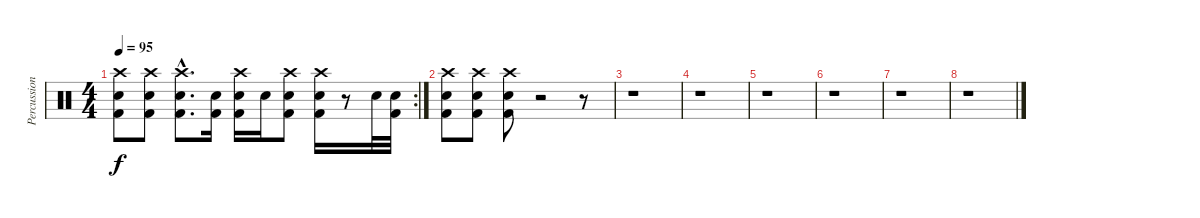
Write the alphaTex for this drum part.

\track ("Percussions" "Percussion") {instrument percussion}
\staff {score}
\articulation defaults
\rc 2
\ts (4 4)
\tempo 95
\clef neutral
\ks c
("Kick (hit) 2" "Snare (hit) 2" "Crash high (hit)").8{dy f} ("Kick (hit) 2" "Snare (hit) 2" "Crash high (hit)").8 ("Kick (hit) 2"{hac} "Snare (hit) 2"{hac} "Crash high (hit)"{hac}).8{d} ("Kick (hit) 2" "Snare (hit) 2").16 ("Kick (hit) 2" "Snare (hit) 2" "Crash high (hit)").16 "Snare (hit) 2".16 ("Kick (hit) 2" "Snare (hit) 2" "Crash high (hit)").8 ("Kick (hit) 2" "Snare (hit) 2" "Crash high (hit)").16 r.8 "Snare (hit) 2".32 ("Kick (hit) 2" "Snare (hit) 2").32 |
("Kick (hit) 2" "Snare (hit) 2" "Crash high (hit)").8 ("Kick (hit) 2" "Snare (hit) 2" "Crash high (hit)").8 ("Kick (hit) 2" "Snare (hit) 2" "Crash high (hit)").8 r.2 r.8 |
r.1 |
r.1 |
r.1 |
r.1 |
r.1 |
r.1
